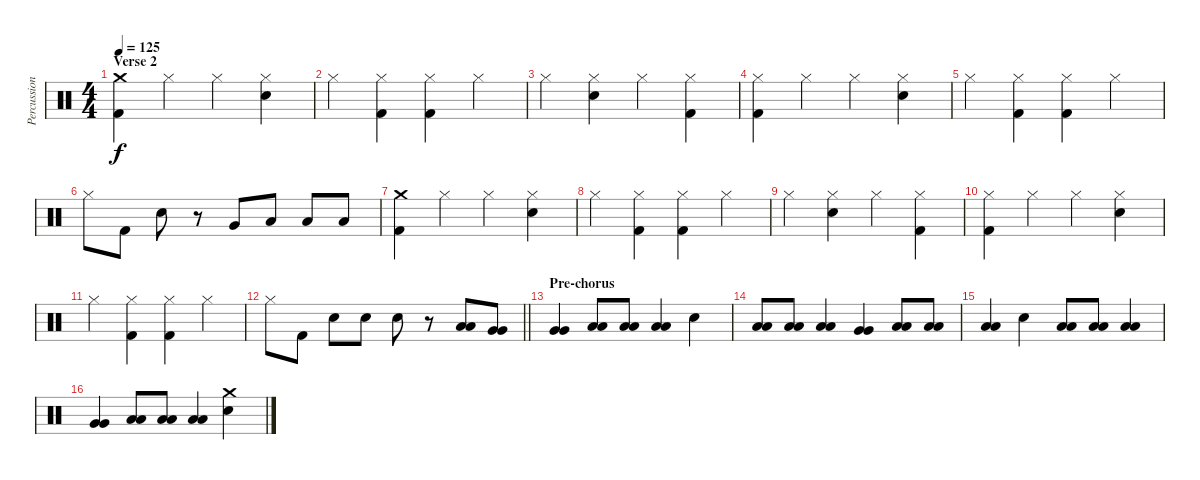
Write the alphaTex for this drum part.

\track ("Percussion" "Percussion") {instrument percussion}
\staff {score}
\articulation defaults
\ts (4 4)
\section ("" "Verse 2")
\tempo 125
\clef neutral
\ks c
("Crash medium (hit)" "Kick (hit) 2").4{dy f} "Hi-Hat (closed)".4 "Hi-Hat (closed)".4 ("Hi-Hat (closed)" "Electric Snare (hit)").4 |
"Hi-Hat (closed)".4 ("Hi-Hat (closed)" "Kick (hit) 2").4 ("Hi-Hat (closed)" "Kick (hit) 2").4 "Hi-Hat (closed)".4 |
"Hi-Hat (closed)".4 ("Hi-Hat (closed)" "Electric Snare (hit)").4 "Hi-Hat (closed)".4 ("Hi-Hat (closed)" "Kick (hit) 2").4 |
("Hi-Hat (closed)" "Kick (hit) 2").4 "Hi-Hat (closed)".4 "Hi-Hat (closed)".4 ("Hi-Hat (closed)" "Electric Snare (hit)").4 |
"Hi-Hat (closed)".4 ("Hi-Hat (closed)" "Kick (hit) 2").4 ("Hi-Hat (closed)" "Kick (hit) 2").4 "Hi-Hat (closed)".4 |
"Hi-Hat (closed)".8 "Kick (hit) 2".8 "Electric Snare (hit)".8 r.8 "Very Low Tom (hit)".8 "Low Tom (hit)".8 "Low Floor Tom (hit)".8 "Low Floor Tom (hit)".8 |
("Crash medium (hit)" "Kick (hit) 2").4 "Hi-Hat (closed)".4 "Hi-Hat (closed)".4 ("Hi-Hat (closed)" "Electric Snare (hit)").4 |
"Hi-Hat (closed)".4 ("Hi-Hat (closed)" "Kick (hit) 2").4 ("Hi-Hat (closed)" "Kick (hit) 2").4 "Hi-Hat (closed)".4 |
"Hi-Hat (closed)".4 ("Hi-Hat (closed)" "Electric Snare (hit)").4 "Hi-Hat (closed)".4 ("Hi-Hat (closed)" "Kick (hit) 2").4 |
("Hi-Hat (closed)" "Kick (hit) 2").4 "Hi-Hat (closed)".4 "Hi-Hat (closed)".4 ("Hi-Hat (closed)" "Electric Snare (hit)").4 |
"Hi-Hat (closed)".4 ("Hi-Hat (closed)" "Kick (hit) 2").4 ("Hi-Hat (closed)" "Kick (hit) 2").4 "Hi-Hat (closed)".4 |
\barLineRight lightlight "Hi-Hat (closed)".8 "Kick (hit) 2".8 "Electric Snare (hit)".8 "Electric Snare (hit)".8 "Electric Snare (hit)".8
r.8 ("Low Tom (hit)" "Low Tom (hit)").8 ("Very Low Tom (hit)" "Very Low Tom (hit)").8 |
\section ("" "Pre-chorus")
("Very Low Tom (hit)" "Very Low Tom (hit)").4 ("Low Tom (hit)" "Low Tom (hit)").8 ("Low Floor Tom (hit)" "Low Floor Tom (hit)").8 ("Low Tom (hit)" "Low Tom (hit)").4 "Electric Snare (hit)".4 |
("Low Tom (hit)" "Low Tom (hit)").8 ("Low Floor Tom (hit)" "Low Floor Tom (hit)").8 ("Low Tom (hit)" "Low Tom (hit)").4 ("Very Low Tom (hit)" "Very Low Tom (hit)").4 ("Low Tom (hit)" "Low Tom (hit)").8 ("Low Floor Tom (hit)" "Low Floor Tom (hit)").8 |
("Low Tom (hit)" "Low Tom (hit)").4 "Electric Snare (hit)".4 ("Low Floor Tom (hit)" "Low Floor Tom (hit)").8 ("Low Tom (hit)" "Low Tom (hit)").8 ("Low Floor Tom (hit)" "Low Floor Tom (hit)").4 |
("Very Low Tom (hit)" "Very Low Tom (hit)").4 ("Low Tom (hit)" "Low Tom (hit)").8 ("Low Floor Tom (hit)" "Low Floor Tom (hit)").8 ("Low Tom (hit)" "Low Tom (hit)").4 ("Electric Snare (hit)" "Crash medium (hit)").4
